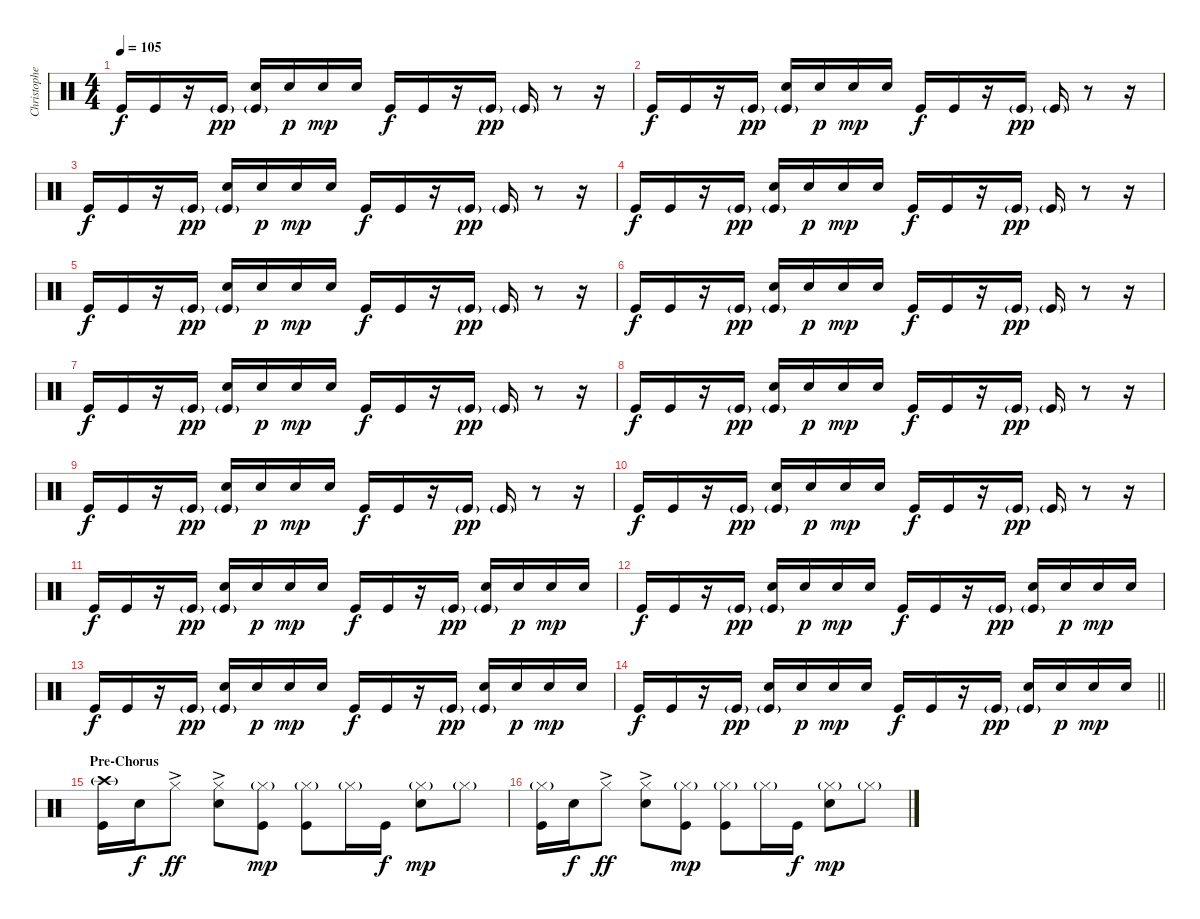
\track ("Christopher - Drums" "Christophe") {mute instrument percussion}
\staff {score}
\articulation defaults
\ts (4 4)
\tempo 105
\clef neutral
\ks c "Kick (hit)".16{dy f} "Kick (hit)".16
r.16 "Kick (hit)"{g}.16{dy pp} ("Snare (hit) 2" "Kick (hit)"{g}).16 "Snare (hit) 2".16{dy p} "Snare (hit) 2".16{dy mp} "Snare (hit) 2".16 "Kick (hit)".16{dy f} "Kick (hit)".16 r.16 "Kick (hit)"{g}.16{dy pp} "Kick (hit)"{g}.16 r.8 r.16 |
"Kick (hit)".16{dy f} "Kick (hit)".16 r.16 "Kick (hit)"{g}.16{dy pp} ("Snare (hit) 2" "Kick (hit)"{g}).16 "Snare (hit) 2".16{dy p} "Snare (hit) 2".16{dy mp} "Snare (hit) 2".16 "Kick (hit)".16{dy f} "Kick (hit)".16 r.16 "Kick (hit)"{g}.16{dy pp} "Kick (hit)"{g}.16 r.8 r.16 |
"Kick (hit)".16{dy f} "Kick (hit)".16 r.16 "Kick (hit)"{g}.16{dy pp} ("Snare (hit) 2" "Kick (hit)"{g}).16 "Snare (hit) 2".16{dy p} "Snare (hit) 2".16{dy mp} "Snare (hit) 2".16 "Kick (hit)".16{dy f} "Kick (hit)".16 r.16 "Kick (hit)"{g}.16{dy pp} "Kick (hit)"{g}.16 r.8 r.16 |
"Kick (hit)".16{dy f} "Kick (hit)".16 r.16 "Kick (hit)"{g}.16{dy pp} ("Snare (hit) 2" "Kick (hit)"{g}).16 "Snare (hit) 2".16{dy p} "Snare (hit) 2".16{dy mp} "Snare (hit) 2".16 "Kick (hit)".16{dy f} "Kick (hit)".16 r.16 "Kick (hit)"{g}.16{dy pp} "Kick (hit)"{g}.16 r.8 r.16 |
"Kick (hit)".16{dy f} "Kick (hit)".16 r.16 "Kick (hit)"{g}.16{dy pp} ("Snare (hit) 2" "Kick (hit)"{g}).16 "Snare (hit) 2".16{dy p} "Snare (hit) 2".16{dy mp} "Snare (hit) 2".16 "Kick (hit)".16{dy f} "Kick (hit)".16 r.16 "Kick (hit)"{g}.16{dy pp} "Kick (hit)"{g}.16 r.8 r.16 |
"Kick (hit)".16{dy f} "Kick (hit)".16 r.16 "Kick (hit)"{g}.16{dy pp} ("Snare (hit) 2" "Kick (hit)"{g}).16 "Snare (hit) 2".16{dy p} "Snare (hit) 2".16{dy mp} "Snare (hit) 2".16 "Kick (hit)".16{dy f} "Kick (hit)".16 r.16 "Kick (hit)"{g}.16{dy pp} "Kick (hit)"{g}.16 r.8 r.16 |
"Kick (hit)".16{dy f} "Kick (hit)".16 r.16 "Kick (hit)"{g}.16{dy pp} ("Snare (hit) 2" "Kick (hit)"{g}).16 "Snare (hit) 2".16{dy p} "Snare (hit) 2".16{dy mp} "Snare (hit) 2".16 "Kick (hit)".16{dy f} "Kick (hit)".16 r.16 "Kick (hit)"{g}.16{dy pp} "Kick (hit)"{g}.16 r.8 r.16 |
"Kick (hit)".16{dy f} "Kick (hit)".16 r.16 "Kick (hit)"{g}.16{dy pp} ("Snare (hit) 2" "Kick (hit)"{g}).16 "Snare (hit) 2".16{dy p} "Snare (hit) 2".16{dy mp} "Snare (hit) 2".16 "Kick (hit)".16{dy f} "Kick (hit)".16 r.16 "Kick (hit)"{g}.16{dy pp} "Kick (hit)"{g}.16 r.8 r.16 |
"Kick (hit)".16{dy f} "Kick (hit)".16 r.16 "Kick (hit)"{g}.16{dy pp} ("Snare (hit) 2" "Kick (hit)"{g}).16 "Snare (hit) 2".16{dy p} "Snare (hit) 2".16{dy mp} "Snare (hit) 2".16 "Kick (hit)".16{dy f} "Kick (hit)".16 r.16 "Kick (hit)"{g}.16{dy pp} "Kick (hit)"{g}.16 r.8 r.16 |
"Kick (hit)".16{dy f} "Kick (hit)".16 r.16 "Kick (hit)"{g}.16{dy pp} ("Snare (hit) 2" "Kick (hit)"{g}).16 "Snare (hit) 2".16{dy p} "Snare (hit) 2".16{dy mp} "Snare (hit) 2".16 "Kick (hit)".16{dy f} "Kick (hit)".16 r.16 "Kick (hit)"{g}.16{dy pp} "Kick (hit)"{g}.16 r.8 r.16 |
"Kick (hit)".16{dy f} "Kick (hit)".16 r.16 "Kick (hit)"{g}.16{dy pp} ("Snare (hit) 2" "Kick (hit)"{g}).16 "Snare (hit) 2".16{dy p} "Snare (hit) 2".16{dy mp} "Snare (hit) 2".16 "Kick (hit)".16{dy f} "Kick (hit)".16 r.16 "Kick (hit)"{g}.16{dy pp} ("Snare (hit) 2" "Kick (hit)"{g}).16 "Snare (hit) 2".16{dy p} "Snare (hit) 2".16{dy mp} "Snare (hit) 2".16 |
"Kick (hit)".16{dy f} "Kick (hit)".16 r.16 "Kick (hit)"{g}.16{dy pp} ("Snare (hit) 2" "Kick (hit)"{g}).16 "Snare (hit) 2".16{dy p} "Snare (hit) 2".16{dy mp} "Snare (hit) 2".16 "Kick (hit)".16{dy f} "Kick (hit)".16 r.16 "Kick (hit)"{g}.16{dy pp} ("Snare (hit) 2" "Kick (hit)"{g}).16 "Snare (hit) 2".16{dy p} "Snare (hit) 2".16{dy mp} "Snare (hit) 2".16 |
"Kick (hit)".16{dy f} "Kick (hit)".16 r.16 "Kick (hit)"{g}.16{dy pp} ("Snare (hit) 2" "Kick (hit)"{g}).16 "Snare (hit) 2".16{dy p} "Snare (hit) 2".16{dy mp} "Snare (hit) 2".16 "Kick (hit)".16{dy f} "Kick (hit)".16 r.16 "Kick (hit)"{g}.16{dy pp} ("Snare (hit) 2" "Kick (hit)"{g}).16 "Snare (hit) 2".16{dy p} "Snare (hit) 2".16{dy mp} "Snare (hit) 2".16 |
\barLineRight lightlight "Kick (hit)".16{dy f} "Kick (hit)".16
r.16 "Kick (hit)"{g}.16{dy pp} ("Snare (hit) 2" "Kick (hit)"{g}).16 "Snare (hit) 2".16{dy p} "Snare (hit) 2".16{dy mp} "Snare (hit) 2".16 "Kick (hit)".16{dy f} "Kick (hit)".16 r.16 "Kick (hit)"{g}.16{dy pp} ("Snare (hit) 2" "Kick (hit)"{g}).16 "Snare (hit) 2".16{dy p} "Snare (hit) 2".16{dy mp} "Snare (hit) 2".16 |
\section ("" "Pre-Chorus")
("Crash high (hit)"{g} "Kick (hit)").16 "Snare (hit) 2".16{dy f} "Hi-Hat (closed)"{ac}.8{dy ff} ("Hi-Hat (closed)"{ac} "Snare (hit) 2").8 ("Hi-Hat (closed)"{g} "Kick (hit)").8{dy mp} ("Hi-Hat (closed)"{g} "Kick (hit)").8 "Hi-Hat (closed)"{g}.16 "Kick (hit)".16{dy f} ("Hi-Hat (closed)"{g} "Snare (hit) 2").8{dy mp} "Hi-Hat (closed)"{g}.8 |
("Hi-Hat (closed)"{g} "Kick (hit)").16 "Snare (hit) 2".16{dy f} "Hi-Hat (closed)"{ac}.8{dy ff} ("Hi-Hat (closed)"{ac} "Snare (hit) 2").8 ("Hi-Hat (closed)"{g} "Kick (hit)").8{dy mp} ("Hi-Hat (closed)"{g} "Kick (hit)").8 "Hi-Hat (closed)"{g}.16 "Kick (hit)".16{dy f} ("Hi-Hat (closed)"{g} "Snare (hit) 2").8{dy mp} "Hi-Hat (closed)"{g}.8
